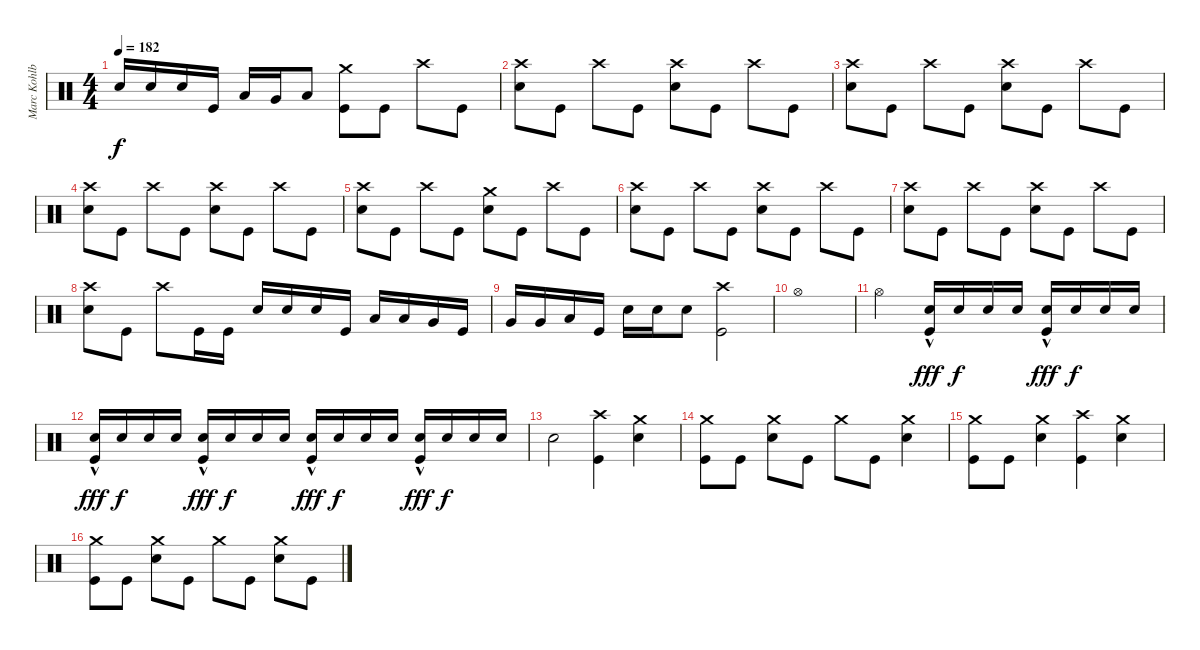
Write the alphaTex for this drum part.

\track ("Marc Kohlbry" "Marc Kohlb") {instrument percussion}
\staff {score}
\articulation defaults
\ts (4 4)
\tempo 182
\clef neutral
\ks c "Electric Snare (hit)".16{dy f} "Electric Snare (hit)".16 "Electric Snare (hit)".16 "Kick (hit)".16 "Low Tom (hit)".16 "Very Low Tom (hit)".16 "Low Floor Tom (hit)".8
("Crash medium (hit)" "Kick (hit)").8 "Kick (hit)".8 "Crash high (hit)".8 "Kick (hit)".8 |
("Crash high (hit)" "Electric Snare (hit)").8 "Kick (hit)".8 "Crash high (hit)".8 "Kick (hit)".8 ("Crash high (hit)" "Electric Snare (hit)").8 "Kick (hit)".8 "Crash high (hit)".8 "Kick (hit)".8 |
("Crash high (hit)" "Electric Snare (hit)").8 "Kick (hit)".8 "Crash high (hit)".8 "Kick (hit)".8 ("Crash high (hit)" "Electric Snare (hit)").8 "Kick (hit)".8 "Crash high (hit)".8 "Kick (hit)".8 |
("Crash high (hit)" "Electric Snare (hit)").8 "Kick (hit)".8 "Crash high (hit)".8 "Kick (hit)".8 ("Crash high (hit)" "Electric Snare (hit)").8 "Kick (hit)".8 "Crash high (hit)".8 "Kick (hit)".8 |
("Crash high (hit)" "Electric Snare (hit)").8 "Kick (hit)".8 "Crash high (hit)".8 "Kick (hit)".8 ("Crash medium (hit)" "Electric Snare (hit)").8 "Kick (hit)".8 "Crash high (hit)".8 "Kick (hit)".8 |
("Crash high (hit)" "Electric Snare (hit)").8 "Kick (hit)".8 "Crash high (hit)".8 "Kick (hit)".8 ("Crash high (hit)" "Electric Snare (hit)").8 "Kick (hit)".8 "Crash high (hit)".8 "Kick (hit)".8 |
("Crash high (hit)" "Electric Snare (hit)").8 "Kick (hit)".8 "Crash high (hit)".8 "Kick (hit)".8 ("Crash high (hit)" "Electric Snare (hit)").8 "Kick (hit)".8 "Crash high (hit)".8 "Kick (hit)".8 |
("Crash high (hit)" "Electric Snare (hit)").8 "Kick (hit)".8 "Crash high (hit)".8 "Kick (hit)".16 "Kick (hit)".16 "Electric Snare (hit)".16 "Electric Snare (hit)".16 "Electric Snare (hit)".16 "Kick (hit)".16 "Low Tom (hit)".16 "Low Tom (hit)".16 "Very Low Tom (hit)".16 "Kick (hit)".16 |
"Very Low Tom (hit)".16 "Very Low Tom (hit)".16 "Low Floor Tom (hit)".16 "Kick (hit)".16 "Electric Snare (hit)".16 "Electric Snare (hit)".16 "Electric Snare (hit)".8 ("Crash high (hit)" "Kick (hit)").2 |
"Hi-Hat (open)".1 |
"Hi-Hat (open)".2 ("Electric Snare (hit)"{hac} "Kick (hit)").16{dy fff volume 7} "Electric Snare (hit)".16{dy f} "Electric Snare (hit)".16 "Electric Snare (hit)".16 ("Electric Snare (hit)"{hac} "Kick (hit)").16{dy fff volume 8} "Electric Snare (hit)".16{dy f} "Electric Snare (hit)".16 "Electric Snare (hit)".16 |
("Electric Snare (hit)"{hac} "Kick (hit)").16{dy fff volume 9} "Electric Snare (hit)".16{dy f} "Electric Snare (hit)".16 "Electric Snare (hit)".16 ("Electric Snare (hit)"{hac} "Kick (hit)").16{dy fff volume 10} "Electric Snare (hit)".16{dy f} "Electric Snare (hit)".16 "Electric Snare (hit)".16 ("Electric Snare (hit)"{hac} "Kick (hit)").16{dy fff volume 10} "Electric Snare (hit)".16{dy f} "Electric Snare (hit)".16 "Electric Snare (hit)".16 ("Electric Snare (hit)"{hac} "Kick (hit)").16{dy fff volume 13} "Electric Snare (hit)".16{dy f} "Electric Snare (hit)".16 "Electric Snare (hit)".16 |
"Electric Snare (hit)".2 ("Crash high (hit)" "Kick (hit)").4 ("Crash medium (hit)" "Electric Snare (hit)").4 |
("Crash medium (hit)" "Kick (hit)").8 "Kick (hit)".8 ("Crash medium (hit)" "Electric Snare (hit)").8 "Kick (hit)".8 "Crash medium (hit)".8 "Kick (hit)".8 ("Crash medium (hit)" "Electric Snare (hit)").4 |
("Crash medium (hit)" "Kick (hit)").8 "Kick (hit)".8 ("Crash medium (hit)" "Electric Snare (hit)").4 ("Crash high (hit)" "Kick (hit)").4 ("Crash medium (hit)" "Electric Snare (hit)").4 |
("Crash medium (hit)" "Kick (hit)").8 "Kick (hit)".8 ("Crash medium (hit)" "Electric Snare (hit)").8 "Kick (hit)".8 "Crash medium (hit)".8 "Kick (hit)".8 ("Crash medium (hit)" "Electric Snare (hit)").8 "Kick (hit)".8
